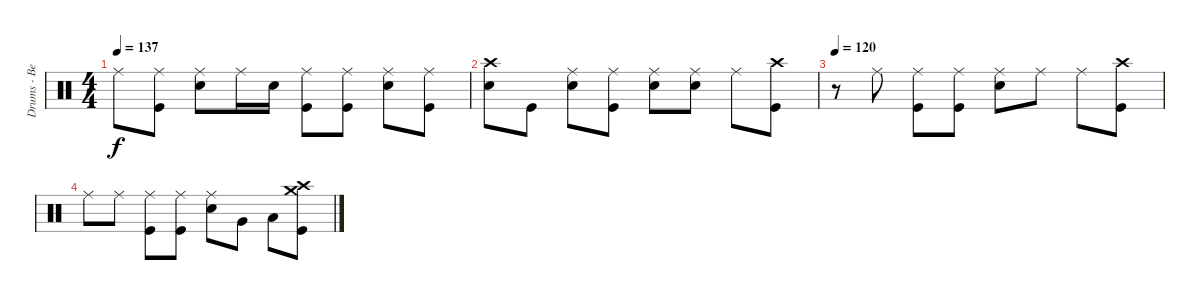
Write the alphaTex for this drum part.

\track ("Drums - Ben Johnston" "Drums - Be") {instrument percussion}
\staff {score}
\articulation defaults
\ts (4 4)
\tempo 137
\clef neutral
\ks c "Ride (middle)".8{dy f}
("Ride (middle)" "Kick (hit)").8 ("Ride (middle)" "Snare (hit) 2").8 "Ride (middle)".16 "Snare (hit) 2".16 ("Ride (middle)" "Kick (hit)").8 ("Ride (middle)" "Kick (hit)").8 ("Ride (middle)" "Snare (hit) 2").8 ("Ride (middle)" "Kick (hit)").8 |
("Crash high (hit)" "Snare (hit) 2").8 "Kick (hit)".8 ("Ride (middle)" "Snare (hit) 2").8 ("Ride (middle)" "Kick (hit)").8 ("Ride (middle)" "Snare (hit) 2").8 ("Ride (middle)" "Snare (hit) 2").8 "Ride (middle)".8 ("Crash high (hit)" "Kick (hit)").8 |
\tempo 120
r.8 "Ride (middle)".8 ("Ride (middle)" "Kick (hit)").8 ("Ride (middle)" "Kick (hit)").8 ("Ride (middle)" "Snare (hit) 2").8 "Ride (middle)".8 "Ride (middle)".8 ("Crash high (hit)" "Kick (hit)").8 |
"Ride (middle)".8 "Ride (middle)".8 ("Ride (middle)" "Kick (hit)").8 ("Ride (middle)" "Kick (hit)").8 ("Ride (middle)" "Snare (hit) 2").8 "Very Low Tom (hit)".8 "Low Floor Tom (hit)".8 ("Crash high (hit)" "Crash medium (hit)" "Kick (hit)").8
